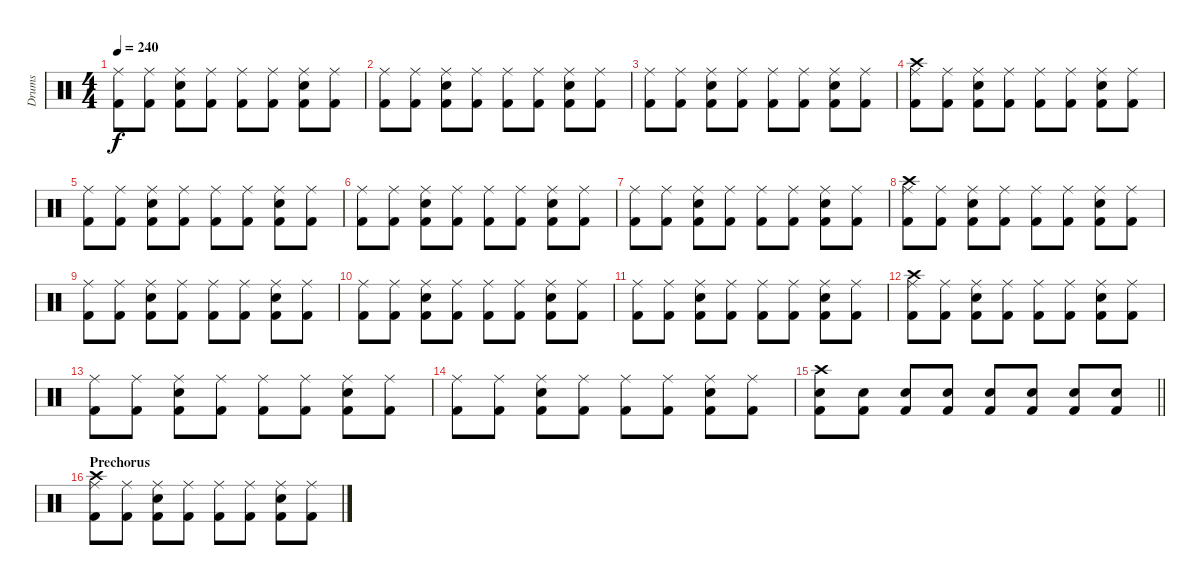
\track ("Drums" "Drums") {instrument percussion}
\staff {score}
\articulation defaults
\ts (4 4)
\tempo 240
\clef neutral
\ks c
("Ride (middle)" "Kick (hit) 2").8{dy f} ("Ride (middle)" "Kick (hit) 2").8 ("Ride (middle)" "Snare (hit) 2" "Kick (hit) 2").8 ("Ride (middle)" "Kick (hit) 2").8 ("Ride (middle)" "Kick (hit) 2").8 ("Ride (middle)" "Kick (hit) 2").8 ("Ride (middle)" "Snare (hit) 2" "Kick (hit) 2").8 ("Ride (middle)" "Kick (hit) 2").8 |
("Ride (middle)" "Kick (hit) 2").8 ("Ride (middle)" "Kick (hit) 2").8 ("Ride (middle)" "Snare (hit) 2" "Kick (hit) 2").8 ("Ride (middle)" "Kick (hit) 2").8 ("Ride (middle)" "Kick (hit) 2").8 ("Ride (middle)" "Kick (hit) 2").8 ("Ride (middle)" "Snare (hit) 2" "Kick (hit) 2").8 ("Ride (middle)" "Kick (hit) 2").8 |
("Ride (middle)" "Kick (hit) 2").8 ("Ride (middle)" "Kick (hit) 2").8 ("Ride (middle)" "Snare (hit) 2" "Kick (hit) 2").8 ("Ride (middle)" "Kick (hit) 2").8 ("Ride (middle)" "Kick (hit) 2").8 ("Ride (middle)" "Kick (hit) 2").8 ("Ride (middle)" "Snare (hit) 2" "Kick (hit) 2").8 ("Ride (middle)" "Kick (hit) 2").8 |
("Crash high (hit)" "Ride (middle)" "Kick (hit) 2").8 ("Ride (middle)" "Kick (hit) 2").8 ("Ride (middle)" "Snare (hit) 2" "Kick (hit) 2").8 ("Ride (middle)" "Kick (hit) 2").8 ("Ride (middle)" "Kick (hit) 2").8 ("Ride (middle)" "Kick (hit) 2").8 ("Ride (middle)" "Snare (hit) 2" "Kick (hit) 2").8 ("Ride (middle)" "Kick (hit) 2").8 |
("Ride (middle)" "Kick (hit) 2").8 ("Ride (middle)" "Kick (hit) 2").8 ("Ride (middle)" "Snare (hit) 2" "Kick (hit) 2").8 ("Ride (middle)" "Kick (hit) 2").8 ("Ride (middle)" "Kick (hit) 2").8 ("Ride (middle)" "Kick (hit) 2").8 ("Ride (middle)" "Snare (hit) 2" "Kick (hit) 2").8 ("Ride (middle)" "Kick (hit) 2").8 |
("Ride (middle)" "Kick (hit) 2").8 ("Ride (middle)" "Kick (hit) 2").8 ("Ride (middle)" "Snare (hit) 2" "Kick (hit) 2").8 ("Ride (middle)" "Kick (hit) 2").8 ("Ride (middle)" "Kick (hit) 2").8 ("Ride (middle)" "Kick (hit) 2").8 ("Ride (middle)" "Snare (hit) 2" "Kick (hit) 2").8 ("Ride (middle)" "Kick (hit) 2").8 |
("Ride (middle)" "Kick (hit) 2").8 ("Ride (middle)" "Kick (hit) 2").8 ("Ride (middle)" "Snare (hit) 2" "Kick (hit) 2").8 ("Ride (middle)" "Kick (hit) 2").8 ("Ride (middle)" "Kick (hit) 2").8 ("Ride (middle)" "Kick (hit) 2").8 ("Ride (middle)" "Snare (hit) 2" "Kick (hit) 2").8 ("Ride (middle)" "Kick (hit) 2").8 |
("Crash high (hit)" "Ride (middle)" "Kick (hit) 2").8 ("Ride (middle)" "Kick (hit) 2").8 ("Ride (middle)" "Snare (hit) 2" "Kick (hit) 2").8 ("Ride (middle)" "Kick (hit) 2").8 ("Ride (middle)" "Kick (hit) 2").8 ("Ride (middle)" "Kick (hit) 2").8 ("Ride (middle)" "Snare (hit) 2" "Kick (hit) 2").8 ("Ride (middle)" "Kick (hit) 2").8 |
("Ride (middle)" "Kick (hit) 2").8 ("Ride (middle)" "Kick (hit) 2").8 ("Ride (middle)" "Snare (hit) 2" "Kick (hit) 2").8 ("Ride (middle)" "Kick (hit) 2").8 ("Ride (middle)" "Kick (hit) 2").8 ("Ride (middle)" "Kick (hit) 2").8 ("Ride (middle)" "Snare (hit) 2" "Kick (hit) 2").8 ("Ride (middle)" "Kick (hit) 2").8 |
("Ride (middle)" "Kick (hit) 2").8 ("Ride (middle)" "Kick (hit) 2").8 ("Ride (middle)" "Snare (hit) 2" "Kick (hit) 2").8 ("Ride (middle)" "Kick (hit) 2").8 ("Ride (middle)" "Kick (hit) 2").8 ("Ride (middle)" "Kick (hit) 2").8 ("Ride (middle)" "Snare (hit) 2" "Kick (hit) 2").8 ("Ride (middle)" "Kick (hit) 2").8 |
("Ride (middle)" "Kick (hit) 2").8 ("Ride (middle)" "Kick (hit) 2").8 ("Ride (middle)" "Snare (hit) 2" "Kick (hit) 2").8 ("Ride (middle)" "Kick (hit) 2").8 ("Ride (middle)" "Kick (hit) 2").8 ("Ride (middle)" "Kick (hit) 2").8 ("Ride (middle)" "Snare (hit) 2" "Kick (hit) 2").8 ("Ride (middle)" "Kick (hit) 2").8 |
("Crash high (hit)" "Ride (middle)" "Kick (hit) 2").8 ("Ride (middle)" "Kick (hit) 2").8 ("Ride (middle)" "Snare (hit) 2" "Kick (hit) 2").8 ("Ride (middle)" "Kick (hit) 2").8 ("Ride (middle)" "Kick (hit) 2").8 ("Ride (middle)" "Kick (hit) 2").8 ("Ride (middle)" "Snare (hit) 2" "Kick (hit) 2").8 ("Ride (middle)" "Kick (hit) 2").8 |
("Ride (middle)" "Kick (hit) 2").8 ("Ride (middle)" "Kick (hit) 2").8 ("Ride (middle)" "Snare (hit) 2" "Kick (hit) 2").8 ("Ride (middle)" "Kick (hit) 2").8 ("Ride (middle)" "Kick (hit) 2").8 ("Ride (middle)" "Kick (hit) 2").8 ("Ride (middle)" "Snare (hit) 2" "Kick (hit) 2").8 ("Ride (middle)" "Kick (hit) 2").8 |
("Ride (middle)" "Kick (hit) 2").8 ("Ride (middle)" "Kick (hit) 2").8 ("Ride (middle)" "Snare (hit) 2" "Kick (hit) 2").8 ("Ride (middle)" "Kick (hit) 2").8 ("Ride (middle)" "Kick (hit) 2").8 ("Ride (middle)" "Kick (hit) 2").8 ("Ride (middle)" "Snare (hit) 2" "Kick (hit) 2").8 ("Ride (middle)" "Kick (hit) 2").8 |
\barLineRight lightlight
("Crash high (hit)" "Snare (hit) 2" "Kick (hit) 2").8 ("Snare (hit) 2" "Kick (hit) 2").8 ("Snare (hit) 2" "Kick (hit) 2").8 ("Snare (hit) 2" "Kick (hit) 2").8 ("Snare (hit) 2" "Kick (hit) 2").8 ("Snare (hit) 2" "Kick (hit) 2").8 ("Snare (hit) 2" "Kick (hit) 2").8 ("Snare (hit) 2" "Kick (hit) 2").8 |
\section ("" "Prechorus")
("Crash high (hit)" "Ride (middle)" "Kick (hit) 2").8 ("Ride (middle)" "Kick (hit) 2").8 ("Ride (middle)" "Snare (hit) 2" "Kick (hit) 2").8 ("Ride (middle)" "Kick (hit) 2").8 ("Ride (middle)" "Kick (hit) 2").8 ("Ride (middle)" "Kick (hit) 2").8 ("Ride (middle)" "Snare (hit) 2" "Kick (hit) 2").8 ("Ride (middle)" "Kick (hit) 2").8
